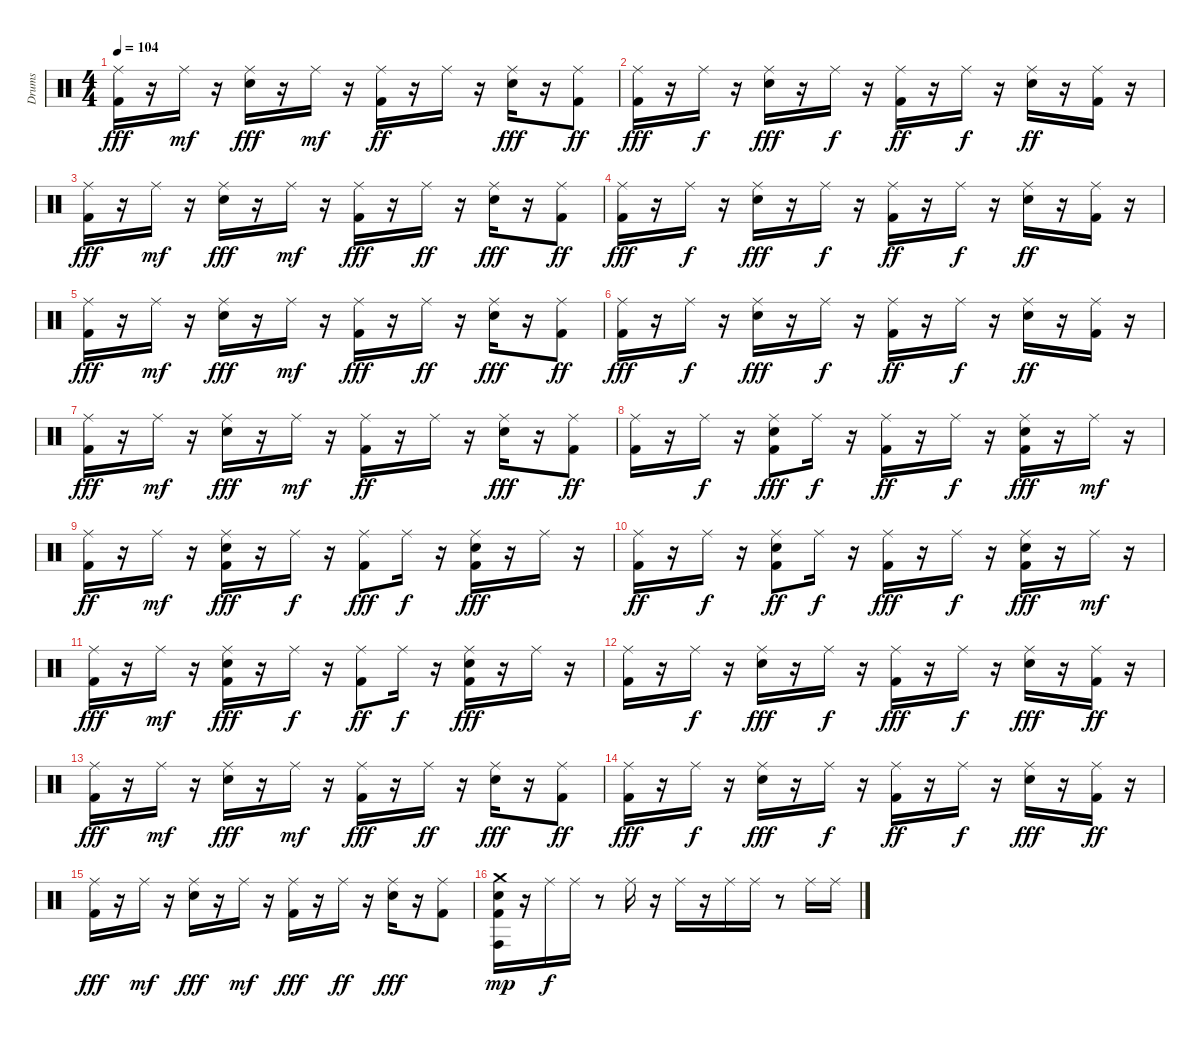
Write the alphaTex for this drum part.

\track ("Drums" "Drums") {instrument percussion}
\staff {score}
\articulation defaults
\ts (4 4)
\tempo 104
\clef neutral
\ks c
("Ride (middle)" "Kick (hit) 2").16{dy fff} r.16 "Ride (middle)".16{dy mf} r.16 ("Ride (middle)" "Snare (hit) 2").16{dy fff} r.16 "Ride (middle)".16{dy mf} r.16 ("Kick (hit) 2" "Ride (middle)").16{dy ff} r.16 "Ride (middle)".16 r.16 ("Snare (hit) 2" "Ride (middle)").16{dy fff} r.16 ("Ride (middle)" "Kick (hit) 2").8{dy ff} |
("Kick (hit) 2" "Ride (middle)").16{dy fff} r.16 "Ride (middle)".16{dy f} r.16 ("Snare (hit) 2" "Ride (middle)").16{dy fff} r.16 "Ride (middle)".16{dy f} r.16 ("Kick (hit) 2" "Ride (middle)").16{dy ff} r.16 "Ride (middle)".16{dy f} r.16 ("Snare (hit) 2" "Ride (middle)").16{dy ff} r.16 ("Ride (middle)" "Kick (hit) 2").16 r.16 |
("Kick (hit) 2" "Ride (middle)").16{dy fff} r.16 "Ride (middle)".16{dy mf} r.16 ("Ride (middle)" "Snare (hit) 2").16{dy fff} r.16 "Ride (middle)".16{dy mf} r.16 ("Ride (middle)" "Kick (hit) 2").16{dy fff} r.16 "Ride (middle)".16{dy ff} r.16 ("Ride (middle)" "Snare (hit) 2").16{dy fff} r.16 ("Ride (middle)" "Kick (hit) 2").8{dy ff} |
("Ride (middle)" "Kick (hit) 2").16{dy fff} r.16 "Ride (middle)".16{dy f} r.16 ("Snare (hit) 2" "Ride (middle)").16{dy fff} r.16 "Ride (middle)".16{dy f} r.16 ("Kick (hit) 2" "Ride (middle)").16{dy ff} r.16 "Ride (middle)".16{dy f} r.16 ("Snare (hit) 2" "Ride (middle)").16{dy ff} r.16 ("Ride (middle)" "Kick (hit) 2").16 r.16 |
("Kick (hit) 2" "Ride (middle)").16{dy fff} r.16 "Ride (middle)".16{dy mf} r.16 ("Snare (hit) 2" "Ride (middle)").16{dy fff} r.16 "Ride (middle)".16{dy mf} r.16 ("Ride (middle)" "Kick (hit) 2").16{dy fff} r.16 "Ride (middle)".16{dy ff} r.16 ("Ride (middle)" "Snare (hit) 2").16{dy fff} r.16 ("Ride (middle)" "Kick (hit) 2").8{dy ff} |
("Ride (middle)" "Kick (hit) 2").16{dy fff} r.16 "Ride (middle)".16{dy f} r.16 ("Snare (hit) 2" "Ride (middle)").16{dy fff} r.16 "Ride (middle)".16{dy f} r.16 ("Kick (hit) 2" "Ride (middle)").16{dy ff} r.16 "Ride (middle)".16{dy f} r.16 ("Snare (hit) 2" "Ride (middle)").16{dy ff} r.16 ("Ride (middle)" "Kick (hit) 2").16 r.16 |
("Kick (hit) 2" "Ride (middle)").16{dy fff} r.16 "Ride (middle)".16{dy mf} r.16 ("Ride (middle)" "Snare (hit) 2").16{dy fff} r.16 "Ride (middle)".16{dy mf} r.16 ("Kick (hit) 2" "Ride (middle)").16{dy ff} r.16 "Ride (middle)".16 r.16 ("Ride (middle)" "Snare (hit) 2").16{dy fff} r.16 ("Ride (middle)" "Kick (hit) 2").8{dy ff} |
("Ride (middle)" "Kick (hit) 2").16 r.16 "Ride (middle)".16{dy f} r.16 ("Kick (hit) 2" "Ride (middle)" "Snare (hit) 2").8{dy fff} "Ride (middle)".16{dy f} r.16 ("Kick (hit) 2" "Ride (middle)").16{dy ff} r.16 "Ride (middle)".16{dy f} r.16 ("Ride (middle)" "Kick (hit) 2" "Snare (hit) 2").16{dy fff} r.16 "Ride (middle)".16{dy mf} r.16 |
("Kick (hit) 2" "Ride (middle)").16{dy ff} r.16 "Ride (middle)".16{dy mf} r.16 ("Snare (hit) 2" "Ride (middle)" "Kick (hit) 2").16{dy fff} r.16 "Ride (middle)".16{dy f} r.16 ("Ride (middle)" "Kick (hit) 2").8{dy fff} "Ride (middle)".16{dy f} r.16 ("Snare (hit) 2" "Ride (middle)" "Kick (hit) 2").16{dy fff} r.16 "Ride (middle)".16 r.16 |
("Kick (hit) 2" "Ride (middle)").16{dy ff} r.16 "Ride (middle)".16{dy f} r.16 ("Kick (hit) 2" "Snare (hit) 2" "Ride (middle)").8{dy ff} "Ride (middle)".16{dy f} r.16 ("Ride (middle)" "Kick (hit) 2").16{dy fff} r.16 "Ride (middle)".16{dy f} r.16 ("Snare (hit) 2" "Ride (middle)" "Kick (hit) 2").16{dy fff} r.16 "Ride (middle)".16{dy mf} r.16 |
("Ride (middle)" "Kick (hit) 2").16{dy fff} r.16 "Ride (middle)".16{dy mf} r.16 ("Snare (hit) 2" "Ride (middle)" "Kick (hit) 2").16{dy fff} r.16 "Ride (middle)".16{dy f} r.16 ("Kick (hit) 2" "Ride (middle)").8{dy ff} "Ride (middle)".16{dy f} r.16 ("Snare (hit) 2" "Ride (middle)" "Kick (hit) 2").16{dy fff} r.16 "Ride (middle)".16 r.16 |
("Ride (middle)" "Kick (hit) 2").16 r.16 "Ride (middle)".16{dy f} r.16 ("Ride (middle)" "Snare (hit) 2").16{dy fff} r.16 "Ride (middle)".16{dy f} r.16 ("Ride (middle)" "Kick (hit) 2").16{dy fff} r.16 "Ride (middle)".16{dy f} r.16 ("Ride (middle)" "Snare (hit) 2").16{dy fff} r.16 ("Kick (hit) 2" "Ride (middle)").16{dy ff} r.16 |
("Ride (middle)" "Kick (hit) 2").16{dy fff} r.16 "Ride (middle)".16{dy mf} r.16 ("Snare (hit) 2" "Ride (middle)").16{dy fff} r.16 "Ride (middle)".16{dy mf} r.16 ("Ride (middle)" "Kick (hit) 2").16{dy fff} r.16 "Ride (middle)".16{dy ff} r.16 ("Snare (hit) 2" "Ride (middle)").16{dy fff} r.16 ("Ride (middle)" "Kick (hit) 2").8{dy ff} |
("Ride (middle)" "Kick (hit) 2").16{dy fff} r.16 "Ride (middle)".16{dy f} r.16 ("Snare (hit) 2" "Ride (middle)").16{dy fff} r.16 "Ride (middle)".16{dy f} r.16 ("Kick (hit) 2" "Ride (middle)").16{dy ff} r.16 "Ride (middle)".16{dy f} r.16 ("Ride (middle)" "Snare (hit) 2").16{dy fff} r.16 ("Kick (hit) 2" "Ride (middle)").16{dy ff} r.16 |
("Ride (middle)" "Kick (hit) 2").16{dy fff} r.16 "Ride (middle)".16{dy mf} r.16 ("Snare (hit) 2" "Ride (middle)").16{dy fff} r.16 "Ride (middle)".16{dy mf} r.16 ("Ride (middle)" "Kick (hit) 2").16{dy fff} r.16 "Ride (middle)".16{dy ff} r.16 ("Ride (middle)" "Snare (hit) 2").16{dy fff} r.16 ("Kick (hit) 2" "Ride (middle)").8 |
("Kick (hit) 2" "Snare (hit) 2" "Conga high (hit)" "Crash medium (hit)").16{dy mp} r.16 "Ride (middle)".16{dy f} "Ride (middle)".16 r.8 "Ride (middle)".16 r.16 "Ride (middle)".16 r.16 "Ride (middle)".16 "Ride (middle)".16 r.8 "Ride (middle)".16 "Ride (middle)".16
